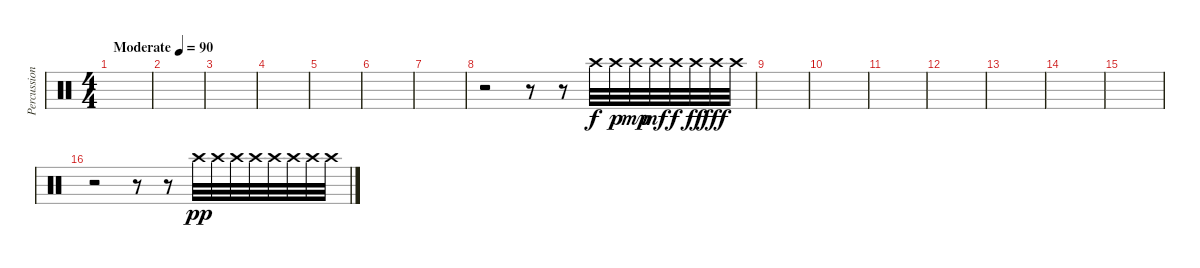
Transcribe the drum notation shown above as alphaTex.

\track ("Percussion" "Percussion") {instrument percussion}
\staff {score}
\articulation defaults
\ts (4 4)
\tempo (90 "Moderate")
\clef neutral
\ks c
|
|
|
|
|
|
|
r.2 r.8 r.8 "Crash high (hit)".32 "Crash high (hit)".32{dy p} "Crash high (hit)".32{dy mp} "Crash high (hit)".32{dy mf} "Crash high (hit)".32{dy f} "Crash high (hit)".32{dy ff} "Crash high (hit)".32{dy fff} "Crash high (hit)".32 |
|
|
|
|
|
|
|
r.2 r.8 r.8 "Crash high (hit)".32{dy pp} "Crash high (hit)".32 "Crash high (hit)".32 "Crash high (hit)".32 "Crash high (hit)".32 "Crash high (hit)".32 "Crash high (hit)".32 "Crash high (hit)".32
